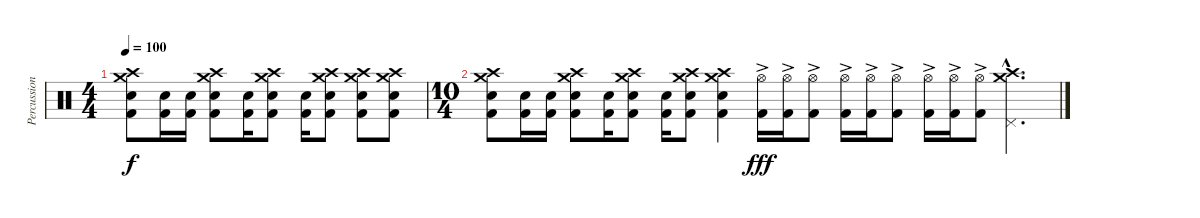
\track ("Percussion" "Percussion") {instrument percussion}
\staff {score}
\articulation defaults
\ts (4 4)
\tempo 100
\clef neutral
\ks c
("Crash high (hit)" "Kick (hit) 2" "Electric Snare (hit)" "Crash medium (hit)").8{dy f} ("Kick (hit) 2" "Electric Snare (hit)").16 ("Kick (hit) 2" "Electric Snare (hit)").16 ("Crash high (hit)" "Kick (hit) 2" "Electric Snare (hit)" "Crash medium (hit)").8 ("Kick (hit) 2" "Electric Snare (hit)").16 ("Crash high (hit)" "Kick (hit) 2" "Electric Snare (hit)" "Crash medium (hit)").8 ("Kick (hit) 2" "Electric Snare (hit)").16 ("Crash high (hit)" "Kick (hit) 2" "Electric Snare (hit)" "Crash medium (hit)").8 ("Crash high (hit)" "Kick (hit) 2" "Electric Snare (hit)" "Crash medium (hit)").8 ("Crash high (hit)" "Kick (hit) 2" "Electric Snare (hit)" "Crash medium (hit)").8 |
\ts (10 4)
("Crash high (hit)" "Kick (hit) 2" "Electric Snare (hit)" "Crash medium (hit)").8 ("Kick (hit) 2" "Electric Snare (hit)").16 ("Kick (hit) 2" "Electric Snare (hit)").16 ("Crash high (hit)" "Kick (hit) 2" "Electric Snare (hit)" "Crash medium (hit)").8 ("Kick (hit) 2" "Electric Snare (hit)").16 ("Crash high (hit)" "Kick (hit) 2" "Electric Snare (hit)" "Crash medium (hit)").8 ("Kick (hit) 2" "Electric Snare (hit)").16 ("Crash high (hit)" "Kick (hit) 2" "Electric Snare (hit)" "Crash medium (hit)").8 ("Crash high (hit)" "Kick (hit) 2" "Electric Snare (hit)" "Crash medium (hit)").4 ("Hi-Hat (open)"{ac} "Kick (hit) 2").16{dy fff} ("Hi-Hat (open)"{ac} "Kick (hit) 2").16 ("Hi-Hat (open)"{ac} "Kick (hit) 2").8 ("Hi-Hat (open)"{ac} "Kick (hit) 2").16 ("Hi-Hat (open)"{ac} "Kick (hit) 2").16 ("Hi-Hat (open)"{ac} "Kick (hit) 2").8 ("Hi-Hat (open)"{ac} "Kick (hit) 2").16 ("Hi-Hat (open)"{ac} "Kick (hit) 2").16 ("Hi-Hat (open)"{ac} "Kick (hit) 2").8 ("Crash high (hit)"{hac} "Crash medium (hit)"{hac} "Pedal Hi-Hat (hit)"{hac}).2{d}
